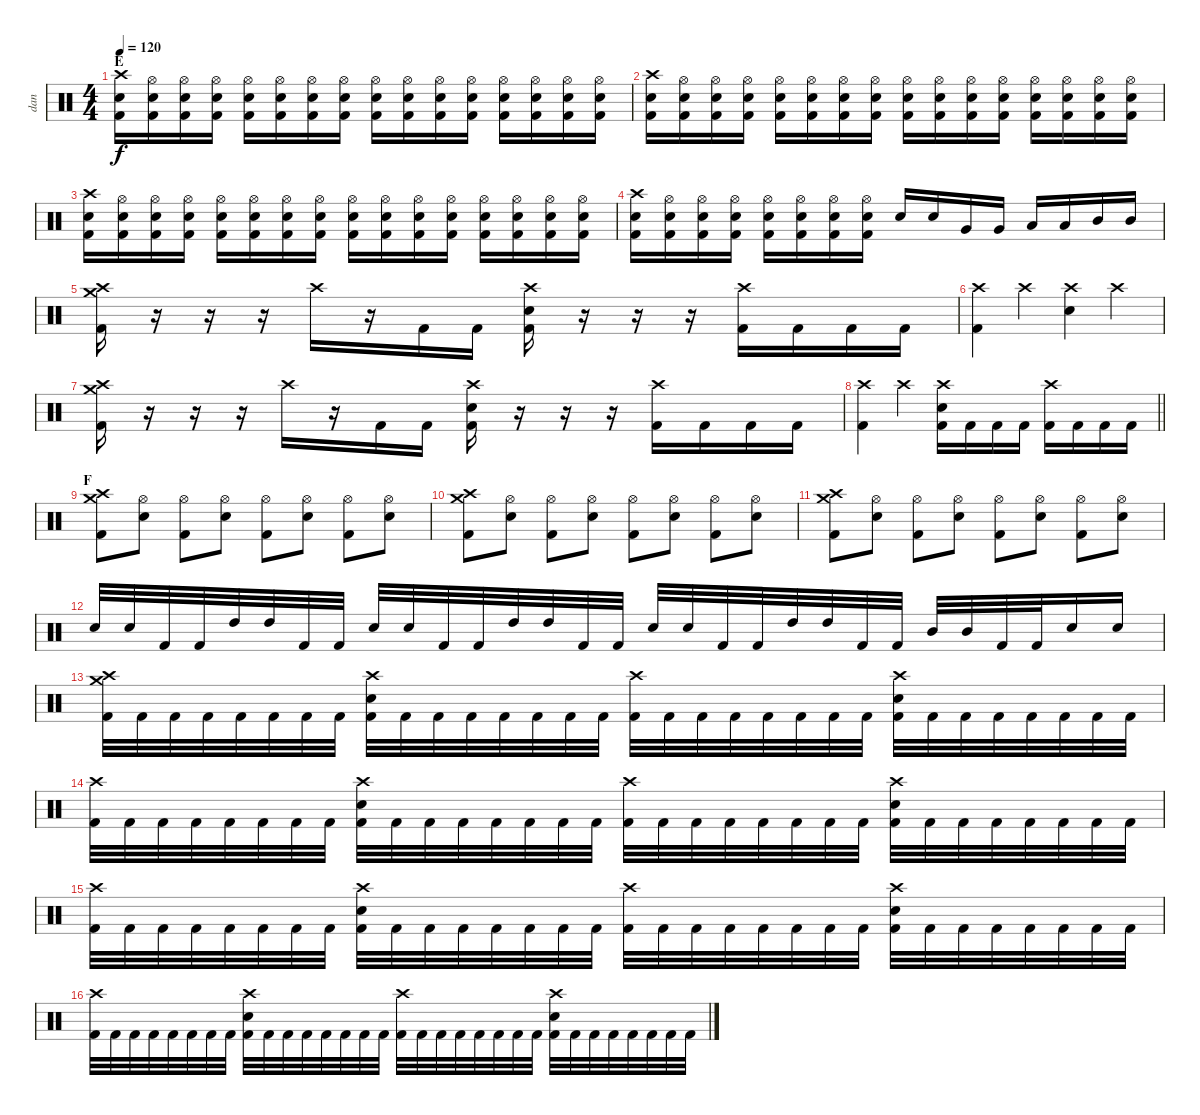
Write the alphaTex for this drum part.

\track ("dan" "dan") {instrument percussion}
\staff {score}
\articulation defaults
\ts (4 4)
\section ("" "E")
\tempo 120
\clef neutral
\ks c
("Crash high (hit)" "Electric Snare (hit)" "Kick (hit) 2").16{dy f} ("Hi-Hat (open)" "Electric Snare (hit)" "Kick (hit) 2").16 ("Hi-Hat (open)" "Electric Snare (hit)" "Kick (hit) 2").16 ("Hi-Hat (open)" "Electric Snare (hit)" "Kick (hit) 2").16 ("Hi-Hat (open)" "Electric Snare (hit)" "Kick (hit) 2").16 ("Hi-Hat (open)" "Electric Snare (hit)" "Kick (hit) 2").16 ("Hi-Hat (open)" "Electric Snare (hit)" "Kick (hit) 2").16 ("Hi-Hat (open)" "Electric Snare (hit)" "Kick (hit) 2").16 ("Hi-Hat (open)" "Electric Snare (hit)" "Kick (hit) 2").16 ("Hi-Hat (open)" "Electric Snare (hit)" "Kick (hit) 2").16 ("Hi-Hat (open)" "Electric Snare (hit)" "Kick (hit) 2").16 ("Hi-Hat (open)" "Electric Snare (hit)" "Kick (hit) 2").16 ("Hi-Hat (open)" "Electric Snare (hit)" "Kick (hit) 2").16 ("Hi-Hat (open)" "Electric Snare (hit)" "Kick (hit) 2").16 ("Hi-Hat (open)" "Electric Snare (hit)" "Kick (hit) 2").16 ("Hi-Hat (open)" "Electric Snare (hit)" "Kick (hit) 2").16 |
("Crash high (hit)" "Electric Snare (hit)" "Kick (hit) 2").16 ("Hi-Hat (open)" "Electric Snare (hit)" "Kick (hit) 2").16 ("Hi-Hat (open)" "Electric Snare (hit)" "Kick (hit) 2").16 ("Hi-Hat (open)" "Electric Snare (hit)" "Kick (hit) 2").16 ("Hi-Hat (open)" "Electric Snare (hit)" "Kick (hit) 2").16 ("Hi-Hat (open)" "Electric Snare (hit)" "Kick (hit) 2").16 ("Hi-Hat (open)" "Electric Snare (hit)" "Kick (hit) 2").16 ("Hi-Hat (open)" "Electric Snare (hit)" "Kick (hit) 2").16 ("Hi-Hat (open)" "Electric Snare (hit)" "Kick (hit) 2").16 ("Hi-Hat (open)" "Electric Snare (hit)" "Kick (hit) 2").16 ("Hi-Hat (open)" "Electric Snare (hit)" "Kick (hit) 2").16 ("Hi-Hat (open)" "Electric Snare (hit)" "Kick (hit) 2").16 ("Hi-Hat (open)" "Electric Snare (hit)" "Kick (hit) 2").16 ("Hi-Hat (open)" "Electric Snare (hit)" "Kick (hit) 2").16 ("Hi-Hat (open)" "Electric Snare (hit)" "Kick (hit) 2").16 ("Hi-Hat (open)" "Electric Snare (hit)" "Kick (hit) 2").16 |
("Crash high (hit)" "Electric Snare (hit)" "Kick (hit) 2").16 ("Hi-Hat (open)" "Electric Snare (hit)" "Kick (hit) 2").16 ("Hi-Hat (open)" "Electric Snare (hit)" "Kick (hit) 2").16 ("Hi-Hat (open)" "Electric Snare (hit)" "Kick (hit) 2").16 ("Hi-Hat (open)" "Electric Snare (hit)" "Kick (hit) 2").16 ("Hi-Hat (open)" "Electric Snare (hit)" "Kick (hit) 2").16 ("Hi-Hat (open)" "Electric Snare (hit)" "Kick (hit) 2").16 ("Hi-Hat (open)" "Electric Snare (hit)" "Kick (hit) 2").16 ("Hi-Hat (open)" "Electric Snare (hit)" "Kick (hit) 2").16 ("Hi-Hat (open)" "Electric Snare (hit)" "Kick (hit) 2").16 ("Hi-Hat (open)" "Electric Snare (hit)" "Kick (hit) 2").16 ("Hi-Hat (open)" "Electric Snare (hit)" "Kick (hit) 2").16 ("Hi-Hat (open)" "Electric Snare (hit)" "Kick (hit) 2").16 ("Hi-Hat (open)" "Electric Snare (hit)" "Kick (hit) 2").16 ("Hi-Hat (open)" "Electric Snare (hit)" "Kick (hit) 2").16 ("Hi-Hat (open)" "Electric Snare (hit)" "Kick (hit) 2").16 |
("Crash high (hit)" "Electric Snare (hit)" "Kick (hit) 2").16 ("Hi-Hat (open)" "Electric Snare (hit)" "Kick (hit) 2").16 ("Hi-Hat (open)" "Electric Snare (hit)" "Kick (hit) 2").16 ("Hi-Hat (open)" "Electric Snare (hit)" "Kick (hit) 2").16 ("Hi-Hat (open)" "Electric Snare (hit)" "Kick (hit) 2").16 ("Hi-Hat (open)" "Electric Snare (hit)" "Kick (hit) 2").16 ("Hi-Hat (open)" "Electric Snare (hit)" "Kick (hit) 2").16 ("Hi-Hat (open)" "Electric Snare (hit)" "Kick (hit) 2").16 "Electric Snare (hit)".16 "Electric Snare (hit)".16 "Very Low Tom (hit)".16 "Very Low Tom (hit)".16 "Low Tom (hit)".16 "Low Tom (hit)".16 "Mid Tom (hit)".16 "Mid Tom (hit)".16 |
("Crash high (hit)" "Crash medium (hit)" "Kick (hit) 2").16 r.16 r.16 r.16 "Crash high (hit)".16 r.16 "Kick (hit) 2".16 "Kick (hit) 2".16 ("Crash high (hit)" "Electric Snare (hit)" "Kick (hit) 2").16 r.16 r.16 r.16 ("Crash high (hit)" "Kick (hit) 2").16 "Kick (hit) 2".16 "Kick (hit) 2".16 "Kick (hit) 2".16 |
("Crash high (hit)" "Kick (hit) 2").4 "Crash high (hit)".4 ("Crash high (hit)" "Electric Snare (hit)").4 "Crash high (hit)".4 |
("Crash high (hit)" "Crash medium (hit)" "Kick (hit) 2").16 r.16 r.16 r.16 "Crash high (hit)".16 r.16 "Kick (hit) 2".16 "Kick (hit) 2".16 ("Crash high (hit)" "Electric Snare (hit)" "Kick (hit) 2").16 r.16 r.16 r.16 ("Crash high (hit)" "Kick (hit) 2").16 "Kick (hit) 2".16 "Kick (hit) 2".16 "Kick (hit) 2".16 |
\barLineRight lightlight
("Crash high (hit)" "Kick (hit) 2").4 "Crash high (hit)".4 ("Crash high (hit)" "Electric Snare (hit)" "Kick (hit) 2").16 "Kick (hit) 2".16 "Kick (hit) 2".16 "Kick (hit) 2".16 ("Crash high (hit)" "Kick (hit) 2").16 "Kick (hit) 2".16 "Kick (hit) 2".16 "Kick (hit) 2".16 |
\section ("" "F")
("Crash high (hit)" "Crash medium (hit)" "Kick (hit) 2").8 ("Hi-Hat (open)" "Electric Snare (hit)").8 ("Hi-Hat (open)" "Kick (hit) 2").8 ("Hi-Hat (open)" "Electric Snare (hit)").8 ("Hi-Hat (open)" "Kick (hit) 2").8 ("Hi-Hat (open)" "Electric Snare (hit)").8 ("Hi-Hat (open)" "Kick (hit) 2").8 ("Hi-Hat (open)" "Electric Snare (hit)").8 |
("Crash high (hit)" "Crash medium (hit)" "Kick (hit) 2").8 ("Hi-Hat (open)" "Electric Snare (hit)").8 ("Hi-Hat (open)" "Kick (hit) 2").8 ("Hi-Hat (open)" "Electric Snare (hit)").8 ("Hi-Hat (open)" "Kick (hit) 2").8 ("Hi-Hat (open)" "Electric Snare (hit)").8 ("Hi-Hat (open)" "Kick (hit) 2").8 ("Hi-Hat (open)" "Electric Snare (hit)").8 |
("Crash high (hit)" "Crash medium (hit)" "Kick (hit) 2").8 ("Hi-Hat (open)" "Electric Snare (hit)").8 ("Hi-Hat (open)" "Kick (hit) 2").8 ("Hi-Hat (open)" "Electric Snare (hit)").8 ("Hi-Hat (open)" "Kick (hit) 2").8 ("Hi-Hat (open)" "Electric Snare (hit)").8 ("Hi-Hat (open)" "Kick (hit) 2").8 ("Hi-Hat (open)" "Electric Snare (hit)").8 |
"Electric Snare (hit)".32 "Electric Snare (hit)".32 "Kick (hit) 2".32 "Kick (hit) 2".32 "High Tom (hit)".32 "High Tom (hit)".32 "Kick (hit) 2".32 "Kick (hit) 2".32 "Electric Snare (hit)".32 "Electric Snare (hit)".32 "Kick (hit) 2".32 "Kick (hit) 2".32 "High Tom (hit)".32 "High Tom (hit)".32 "Kick (hit) 2".32 "Kick (hit) 2".32 "Electric Snare (hit)".32 "Electric Snare (hit)".32 "Kick (hit) 2".32 "Kick (hit) 2".32 "High Tom (hit)".32 "High Tom (hit)".32 "Kick (hit) 2".32 "Kick (hit) 2".32 "Mid Tom (hit)".32 "Mid Tom (hit)".32 "Kick (hit) 2".32 "Kick (hit) 2".32 "Electric Snare (hit)".16 "Electric Snare (hit)".16 |
("Crash high (hit)" "Crash medium (hit)" "Kick (hit) 2").32 "Kick (hit) 2".32 "Kick (hit) 2".32 "Kick (hit) 2".32 "Kick (hit) 2".32 "Kick (hit) 2".32 "Kick (hit) 2".32 "Kick (hit) 2".32 ("Crash high (hit)" "Electric Snare (hit)" "Kick (hit) 2").32 "Kick (hit) 2".32 "Kick (hit) 2".32 "Kick (hit) 2".32 "Kick (hit) 2".32 "Kick (hit) 2".32 "Kick (hit) 2".32 "Kick (hit) 2".32 ("Crash high (hit)" "Kick (hit) 2").32 "Kick (hit) 2".32 "Kick (hit) 2".32 "Kick (hit) 2".32 "Kick (hit) 2".32 "Kick (hit) 2".32 "Kick (hit) 2".32 "Kick (hit) 2".32 ("Crash high (hit)" "Electric Snare (hit)" "Kick (hit) 2").32 "Kick (hit) 2".32 "Kick (hit) 2".32 "Kick (hit) 2".32 "Kick (hit) 2".32 "Kick (hit) 2".32 "Kick (hit) 2".32 "Kick (hit) 2".32 |
("Crash high (hit)" "Kick (hit) 2").32 "Kick (hit) 2".32 "Kick (hit) 2".32 "Kick (hit) 2".32 "Kick (hit) 2".32 "Kick (hit) 2".32 "Kick (hit) 2".32 "Kick (hit) 2".32 ("Crash high (hit)" "Electric Snare (hit)" "Kick (hit) 2").32 "Kick (hit) 2".32 "Kick (hit) 2".32 "Kick (hit) 2".32 "Kick (hit) 2".32 "Kick (hit) 2".32 "Kick (hit) 2".32 "Kick (hit) 2".32 ("Crash high (hit)" "Kick (hit) 2").32 "Kick (hit) 2".32 "Kick (hit) 2".32 "Kick (hit) 2".32 "Kick (hit) 2".32 "Kick (hit) 2".32 "Kick (hit) 2".32 "Kick (hit) 2".32 ("Crash high (hit)" "Electric Snare (hit)" "Kick (hit) 2").32 "Kick (hit) 2".32 "Kick (hit) 2".32 "Kick (hit) 2".32 "Kick (hit) 2".32 "Kick (hit) 2".32 "Kick (hit) 2".32 "Kick (hit) 2".32 |
("Crash high (hit)" "Kick (hit) 2").32 "Kick (hit) 2".32 "Kick (hit) 2".32 "Kick (hit) 2".32 "Kick (hit) 2".32 "Kick (hit) 2".32 "Kick (hit) 2".32 "Kick (hit) 2".32 ("Crash high (hit)" "Electric Snare (hit)" "Kick (hit) 2").32 "Kick (hit) 2".32 "Kick (hit) 2".32 "Kick (hit) 2".32 "Kick (hit) 2".32 "Kick (hit) 2".32 "Kick (hit) 2".32 "Kick (hit) 2".32 ("Crash high (hit)" "Kick (hit) 2").32 "Kick (hit) 2".32 "Kick (hit) 2".32 "Kick (hit) 2".32 "Kick (hit) 2".32 "Kick (hit) 2".32 "Kick (hit) 2".32 "Kick (hit) 2".32 ("Crash high (hit)" "Electric Snare (hit)" "Kick (hit) 2").32 "Kick (hit) 2".32 "Kick (hit) 2".32 "Kick (hit) 2".32 "Kick (hit) 2".32 "Kick (hit) 2".32 "Kick (hit) 2".32 "Kick (hit) 2".32 |
("Crash high (hit)" "Kick (hit) 2").32 "Kick (hit) 2".32 "Kick (hit) 2".32 "Kick (hit) 2".32 "Kick (hit) 2".32 "Kick (hit) 2".32 "Kick (hit) 2".32 "Kick (hit) 2".32 ("Crash high (hit)" "Electric Snare (hit)" "Kick (hit) 2").32 "Kick (hit) 2".32 "Kick (hit) 2".32 "Kick (hit) 2".32 "Kick (hit) 2".32 "Kick (hit) 2".32 "Kick (hit) 2".32 "Kick (hit) 2".32 ("Crash high (hit)" "Kick (hit) 2").32 "Kick (hit) 2".32 "Kick (hit) 2".32 "Kick (hit) 2".32 "Kick (hit) 2".32 "Kick (hit) 2".32 "Kick (hit) 2".32 "Kick (hit) 2".32 ("Crash high (hit)" "Electric Snare (hit)" "Kick (hit) 2").32 "Kick (hit) 2".32 "Kick (hit) 2".32 "Kick (hit) 2".32 "Kick (hit) 2".32 "Kick (hit) 2".32 "Kick (hit) 2".32 "Kick (hit) 2".32
